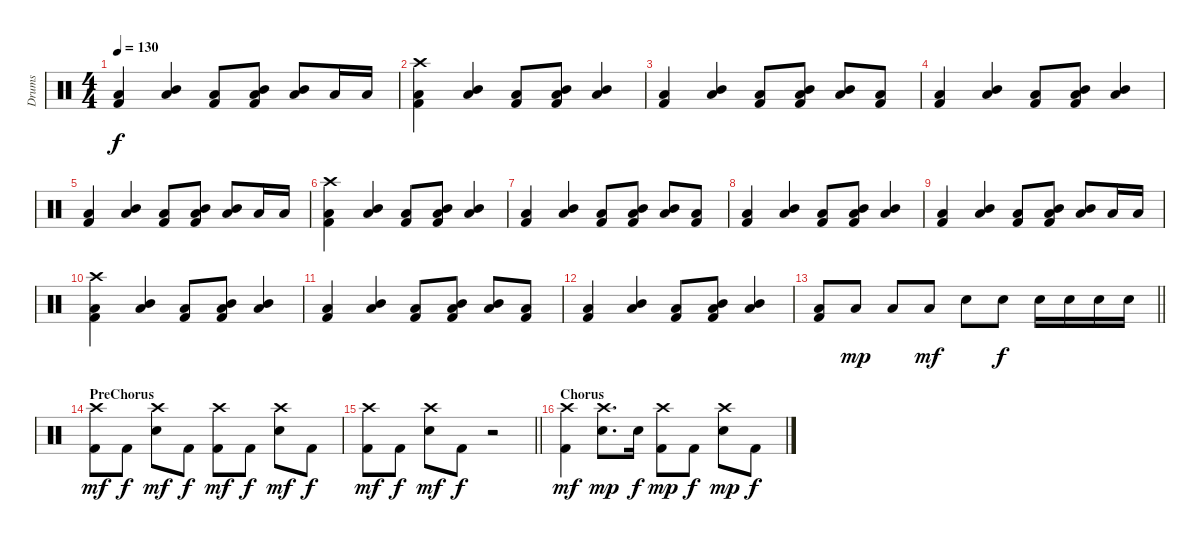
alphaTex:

\track ("Drums" "Drums") {instrument percussion}
\staff {score}
\articulation defaults
\ts (4 4)
\tempo 130
\clef neutral
\ks c
("Low Floor Tom (hit)" "Kick (hit) 2").4{dy f} ("Mid Tom (hit)" "Low Tom (hit)").4 ("Low Floor Tom (hit)" "Kick (hit) 2").8 ("Mid Tom (hit)" "Low Floor Tom (hit)" "Kick (hit) 2").8 ("Mid Tom (hit)" "Low Tom (hit)").8 "Low Floor Tom (hit)".16 "Low Floor Tom (hit)".16 |
("Crash high (hit)" "Low Floor Tom (hit)" "Kick (hit) 2").4 ("Mid Tom (hit)" "Low Tom (hit)").4 ("Low Floor Tom (hit)" "Kick (hit) 2").8 ("Mid Tom (hit)" "Low Floor Tom (hit)" "Kick (hit) 2").8 ("Mid Tom (hit)" "Low Tom (hit)").4 |
("Low Floor Tom (hit)" "Kick (hit) 2").4 ("Mid Tom (hit)" "Low Tom (hit)").4 ("Low Floor Tom (hit)" "Kick (hit) 2").8 ("Mid Tom (hit)" "Low Floor Tom (hit)" "Kick (hit) 2").8 ("Mid Tom (hit)" "Low Tom (hit)").8 ("Low Floor Tom (hit)" "Kick (hit) 2").8 |
("Low Floor Tom (hit)" "Kick (hit) 2").4 ("Mid Tom (hit)" "Low Tom (hit)").4 ("Low Floor Tom (hit)" "Kick (hit) 2").8 ("Mid Tom (hit)" "Low Floor Tom (hit)" "Kick (hit) 2").8 ("Mid Tom (hit)" "Low Tom (hit)").4 |
("Low Floor Tom (hit)" "Kick (hit) 2").4 ("Mid Tom (hit)" "Low Tom (hit)").4 ("Low Floor Tom (hit)" "Kick (hit) 2").8 ("Mid Tom (hit)" "Low Floor Tom (hit)" "Kick (hit) 2").8 ("Mid Tom (hit)" "Low Tom (hit)").8 "Low Floor Tom (hit)".16 "Low Floor Tom (hit)".16 |
("Crash high (hit)" "Low Floor Tom (hit)" "Kick (hit) 2").4 ("Mid Tom (hit)" "Low Tom (hit)").4 ("Low Floor Tom (hit)" "Kick (hit) 2").8 ("Mid Tom (hit)" "Low Floor Tom (hit)" "Kick (hit) 2").8 ("Mid Tom (hit)" "Low Tom (hit)").4 |
("Low Floor Tom (hit)" "Kick (hit) 2").4 ("Mid Tom (hit)" "Low Tom (hit)").4 ("Low Floor Tom (hit)" "Kick (hit) 2").8 ("Mid Tom (hit)" "Low Floor Tom (hit)" "Kick (hit) 2").8 ("Mid Tom (hit)" "Low Tom (hit)").8 ("Low Floor Tom (hit)" "Kick (hit) 2").8 |
("Low Floor Tom (hit)" "Kick (hit) 2").4 ("Mid Tom (hit)" "Low Tom (hit)").4 ("Low Floor Tom (hit)" "Kick (hit) 2").8 ("Mid Tom (hit)" "Low Floor Tom (hit)" "Kick (hit) 2").8 ("Mid Tom (hit)" "Low Tom (hit)").4 |
("Low Floor Tom (hit)" "Kick (hit) 2").4 ("Mid Tom (hit)" "Low Tom (hit)").4 ("Low Floor Tom (hit)" "Kick (hit) 2").8 ("Mid Tom (hit)" "Low Floor Tom (hit)" "Kick (hit) 2").8 ("Mid Tom (hit)" "Low Tom (hit)").8 "Low Floor Tom (hit)".16 "Low Floor Tom (hit)".16 |
("Crash high (hit)" "Low Floor Tom (hit)" "Kick (hit) 2").4 ("Mid Tom (hit)" "Low Tom (hit)").4 ("Low Floor Tom (hit)" "Kick (hit) 2").8 ("Mid Tom (hit)" "Low Floor Tom (hit)" "Kick (hit) 2").8 ("Mid Tom (hit)" "Low Tom (hit)").4 |
("Low Floor Tom (hit)" "Kick (hit) 2").4 ("Mid Tom (hit)" "Low Tom (hit)").4 ("Low Floor Tom (hit)" "Kick (hit) 2").8 ("Mid Tom (hit)" "Low Floor Tom (hit)" "Kick (hit) 2").8 ("Mid Tom (hit)" "Low Tom (hit)").8 ("Low Floor Tom (hit)" "Kick (hit) 2").8 |
("Low Floor Tom (hit)" "Kick (hit) 2").4 ("Mid Tom (hit)" "Low Tom (hit)").4 ("Low Floor Tom (hit)" "Kick (hit) 2").8 ("Mid Tom (hit)" "Low Floor Tom (hit)" "Kick (hit) 2").8 ("Mid Tom (hit)" "Low Tom (hit)").4 |
\barLineRight lightlight
("Low Floor Tom (hit)" "Kick (hit) 2").8 "Low Tom (hit)".8{dy mp} "Low Tom (hit)".8 "Low Tom (hit)".8{dy mf} "Snare (hit) 2".8 "Snare (hit) 2".8{dy f} "Snare (hit) 2".16 "Snare (hit) 2".16 "Snare (hit) 2".16 "Snare (hit) 2".16 |
\section ("" "PreChorus")
("Crash high (hit)" "Kick (hit) 2").8{dy mf} "Kick (hit) 2".8{dy f} ("Crash high (hit)" "Snare (hit) 2").8{dy mf} "Kick (hit) 2".8{dy f} ("Crash high (hit)" "Kick (hit) 2").8{dy mf} "Kick (hit) 2".8{dy f} ("Crash high (hit)" "Snare (hit) 2").8{dy mf} "Kick (hit) 2".8{dy f} |
\barLineRight lightlight
("Crash high (hit)" "Kick (hit) 2").8{dy mf} "Kick (hit) 2".8{dy f} ("Crash high (hit)" "Snare (hit) 2").8{dy mf} "Kick (hit) 2".8{dy f} r.2 |
\section ("" "Chorus")
("Crash high (hit)" "Kick (hit) 2").4{dy mf} ("Crash high (hit)" "Snare (hit) 2").8{d dy mp} "Snare (hit) 2".16{dy f} ("Crash high (hit)" "Kick (hit) 2").8{dy mp} "Kick (hit) 2".8{dy f} ("Crash high (hit)" "Snare (hit) 2").8{dy mp} "Kick (hit) 2".8{dy f}
